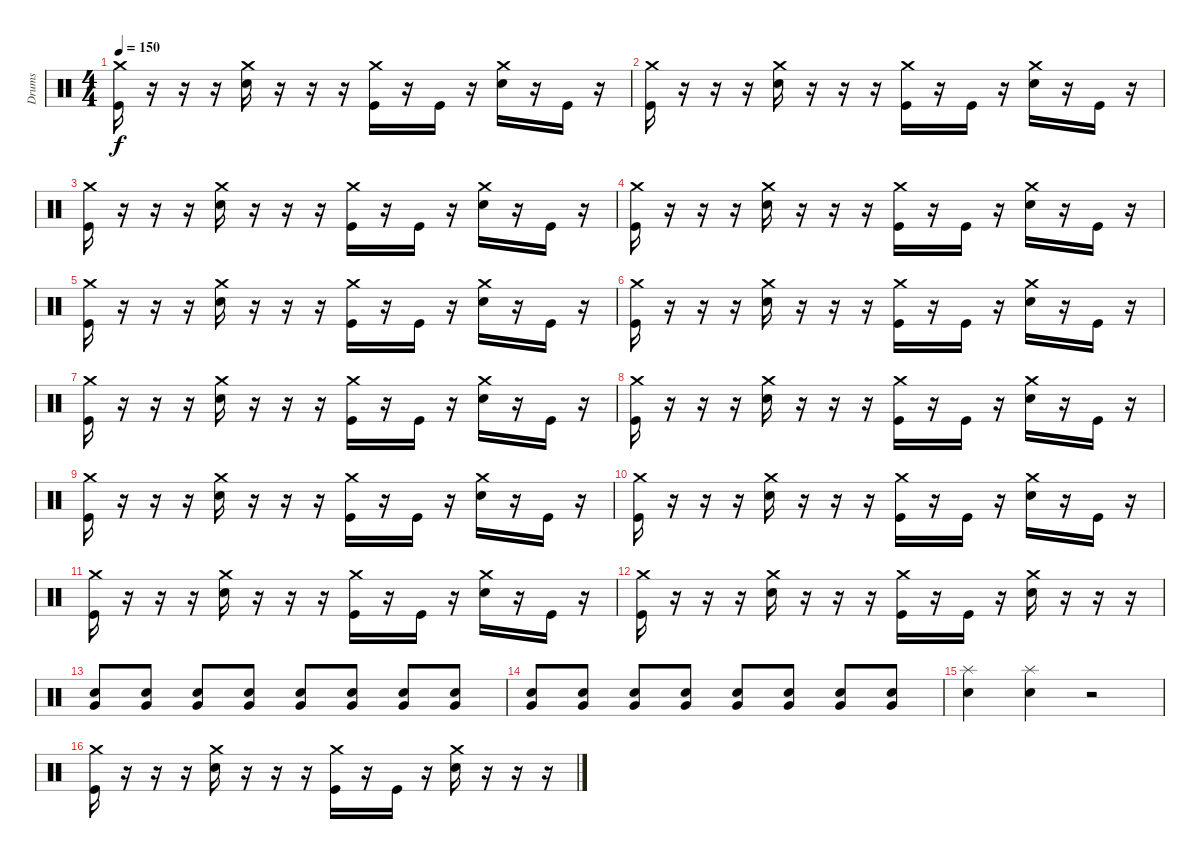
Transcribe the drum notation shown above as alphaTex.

\track ("Drums" "Drums") {instrument percussion}
\staff {score}
\articulation defaults
\ts (4 4)
\tempo 150
\clef neutral
\ks c
("Crash medium (hit)" "Kick (hit)").16{dy f} r.16 r.16 r.16 ("Crash medium (hit)" "Snare (hit) 2").16 r.16 r.16 r.16 ("Crash medium (hit)" "Kick (hit)").16 r.16 "Kick (hit)".16 r.16 ("Crash medium (hit)" "Snare (hit) 2").16 r.16 "Kick (hit)".16 r.16 |
("Crash medium (hit)" "Kick (hit)").16 r.16 r.16 r.16 ("Crash medium (hit)" "Snare (hit) 2").16 r.16 r.16 r.16 ("Crash medium (hit)" "Kick (hit)").16 r.16 "Kick (hit)".16 r.16 ("Crash medium (hit)" "Snare (hit) 2").16 r.16 "Kick (hit)".16 r.16 |
("Crash medium (hit)" "Kick (hit)").16 r.16 r.16 r.16 ("Crash medium (hit)" "Snare (hit) 2").16 r.16 r.16 r.16 ("Crash medium (hit)" "Kick (hit)").16 r.16 "Kick (hit)".16 r.16 ("Crash medium (hit)" "Snare (hit) 2").16 r.16 "Kick (hit)".16 r.16 |
("Crash medium (hit)" "Kick (hit)").16 r.16 r.16 r.16 ("Crash medium (hit)" "Snare (hit) 2").16 r.16 r.16 r.16 ("Crash medium (hit)" "Kick (hit)").16 r.16 "Kick (hit)".16 r.16 ("Crash medium (hit)" "Snare (hit) 2").16 r.16 "Kick (hit)".16 r.16 |
("Crash medium (hit)" "Kick (hit)").16 r.16 r.16 r.16 ("Crash medium (hit)" "Snare (hit) 2").16 r.16 r.16 r.16 ("Crash medium (hit)" "Kick (hit)").16 r.16 "Kick (hit)".16 r.16 ("Crash medium (hit)" "Snare (hit) 2").16 r.16 "Kick (hit)".16 r.16 |
("Crash medium (hit)" "Kick (hit)").16 r.16 r.16 r.16 ("Crash medium (hit)" "Snare (hit) 2").16 r.16 r.16 r.16 ("Crash medium (hit)" "Kick (hit)").16 r.16 "Kick (hit)".16 r.16 ("Crash medium (hit)" "Snare (hit) 2").16 r.16 "Kick (hit)".16 r.16 |
("Crash medium (hit)" "Kick (hit)").16 r.16 r.16 r.16 ("Crash medium (hit)" "Snare (hit) 2").16 r.16 r.16 r.16 ("Crash medium (hit)" "Kick (hit)").16 r.16 "Kick (hit)".16 r.16 ("Crash medium (hit)" "Snare (hit) 2").16 r.16 "Kick (hit)".16 r.16 |
("Crash medium (hit)" "Kick (hit)").16 r.16 r.16 r.16 ("Crash medium (hit)" "Snare (hit) 2").16 r.16 r.16 r.16 ("Crash medium (hit)" "Kick (hit)").16 r.16 "Kick (hit)".16 r.16 ("Crash medium (hit)" "Snare (hit) 2").16 r.16 "Kick (hit)".16 r.16 |
("Crash medium (hit)" "Kick (hit)").16 r.16 r.16 r.16 ("Crash medium (hit)" "Snare (hit) 2").16 r.16 r.16 r.16 ("Crash medium (hit)" "Kick (hit)").16 r.16 "Kick (hit)".16 r.16 ("Crash medium (hit)" "Snare (hit) 2").16 r.16 "Kick (hit)".16 r.16 |
("Crash medium (hit)" "Kick (hit)").16 r.16 r.16 r.16 ("Crash medium (hit)" "Snare (hit) 2").16 r.16 r.16 r.16 ("Crash medium (hit)" "Kick (hit)").16 r.16 "Kick (hit)".16 r.16 ("Crash medium (hit)" "Snare (hit) 2").16 r.16 "Kick (hit)".16 r.16 |
("Crash medium (hit)" "Kick (hit)").16 r.16 r.16 r.16 ("Crash medium (hit)" "Snare (hit) 2").16 r.16 r.16 r.16 ("Crash medium (hit)" "Kick (hit)").16 r.16 "Kick (hit)".16 r.16 ("Crash medium (hit)" "Snare (hit) 2").16 r.16 "Kick (hit)".16 r.16 |
("Crash medium (hit)" "Kick (hit)").16 r.16 r.16 r.16 ("Crash medium (hit)" "Snare (hit) 2").16 r.16 r.16 r.16 ("Crash medium (hit)" "Kick (hit)").16 r.16 "Kick (hit)".16 r.16 ("Crash medium (hit)" "Snare (hit) 2").16 r.16 r.16 r.16 |
("Snare (hit) 2" "Very Low Tom (hit)").8 ("Snare (hit) 2" "Very Low Tom (hit)").8 ("Snare (hit) 2" "Very Low Tom (hit)").8 ("Snare (hit) 2" "Very Low Tom (hit)").8 ("Snare (hit) 2" "Very Low Tom (hit)").8 ("Snare (hit) 2" "Very Low Tom (hit)").8 ("Snare (hit) 2" "Very Low Tom (hit)").8 ("Snare (hit) 2" "Very Low Tom (hit)").8 |
("Snare (hit) 2" "Very Low Tom (hit)").8 ("Snare (hit) 2" "Very Low Tom (hit)").8 ("Snare (hit) 2" "Very Low Tom (hit)").8 ("Snare (hit) 2" "Very Low Tom (hit)").8 ("Snare (hit) 2" "Very Low Tom (hit)").8 ("Snare (hit) 2" "Very Low Tom (hit)").8 ("Snare (hit) 2" "Very Low Tom (hit)").8 ("Snare (hit) 2" "Very Low Tom (hit)").8 |
("Splash (hit)" "Snare (hit) 2").4 ("Splash (hit)" "Snare (hit) 2").4 r.2 |
("Crash medium (hit)" "Kick (hit)").16 r.16 r.16 r.16 ("Crash medium (hit)" "Snare (hit) 2").16 r.16 r.16 r.16 ("Crash medium (hit)" "Kick (hit)").16 r.16 "Kick (hit)".16 r.16 ("Crash medium (hit)" "Snare (hit) 2").16 r.16 r.16 r.16
